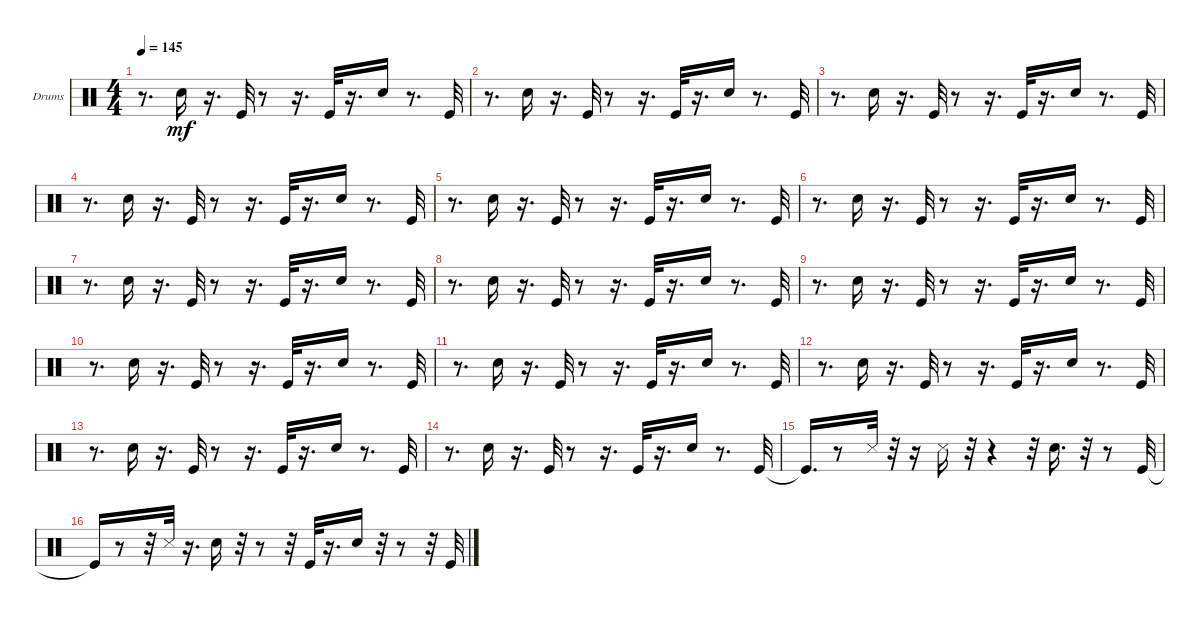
\bracketExtendMode groupsimilarinstruments
\firstSystemTrackNameOrientation horizontal
\otherSystemsTrackNameOrientation horizontal
\track ("Drums" "Drums") {instrument percussion}
\staff {score}
\articulation defaults
\ts (4 4)
\tempo 145
\clef neutral
\ks c
r.8{d dy mf} "Snare (hit) 2".16 r.16{d} "Kick (hit)".32 r.8 r.16{d} "Kick (hit)".32 r.16{d} "Snare (hit) 2".16 r.8{d} "Kick (hit)".32 |
r.8{d} "Snare (hit) 2".16 r.16{d} "Kick (hit)".32 r.8 r.16{d} "Kick (hit)".32 r.16{d} "Snare (hit) 2".16 r.8{d} "Kick (hit)".32 |
r.8{d} "Snare (hit) 2".16 r.16{d} "Kick (hit)".32 r.8 r.16{d} "Kick (hit)".32 r.16{d} "Snare (hit) 2".16 r.8{d} "Kick (hit)".32 |
r.8{d} "Snare (hit) 2".16 r.16{d} "Kick (hit)".32 r.8 r.16{d} "Kick (hit)".32 r.16{d} "Snare (hit) 2".16 r.8{d} "Kick (hit)".32 |
r.8{d} "Snare (hit) 2".16 r.16{d} "Kick (hit)".32 r.8 r.16{d} "Kick (hit)".32 r.16{d} "Snare (hit) 2".16 r.8{d} "Kick (hit)".32 |
r.8{d} "Snare (hit) 2".16 r.16{d} "Kick (hit)".32 r.8 r.16{d} "Kick (hit)".32 r.16{d} "Snare (hit) 2".16 r.8{d} "Kick (hit)".32 |
r.8{d} "Snare (hit) 2".16 r.16{d} "Kick (hit)".32 r.8 r.16{d} "Kick (hit)".32 r.16{d} "Snare (hit) 2".16 r.8{d} "Kick (hit)".32 |
r.8{d} "Snare (hit) 2".16 r.16{d} "Kick (hit)".32 r.8 r.16{d} "Kick (hit)".32 r.16{d} "Snare (hit) 2".16 r.8{d} "Kick (hit)".32 |
r.8{d} "Snare (hit) 2".16 r.16{d} "Kick (hit)".32 r.8 r.16{d} "Kick (hit)".32 r.16{d} "Snare (hit) 2".16 r.8{d} "Kick (hit)".32 |
r.8{d} "Snare (hit) 2".16 r.16{d} "Kick (hit)".32 r.8 r.16{d} "Kick (hit)".32 r.16{d} "Snare (hit) 2".16 r.8{d} "Kick (hit)".32 |
r.8{d} "Snare (hit) 2".16 r.16{d} "Kick (hit)".32 r.8 r.16{d} "Kick (hit)".32 r.16{d} "Snare (hit) 2".16 r.8{d} "Kick (hit)".32 |
r.8{d} "Snare (hit) 2".16 r.16{d} "Kick (hit)".32 r.8 r.16{d} "Kick (hit)".32 r.16{d} "Snare (hit) 2".16 r.8{d} "Kick (hit)".32 |
r.8{d} "Snare (hit) 2".16 r.16{d} "Kick (hit)".32 r.8 r.16{d} "Kick (hit)".32 r.16{d} "Snare (hit) 2".16 r.8{d} "Kick (hit)".32 |
r.8{d} "Snare (hit) 2".16 r.16{d} "Kick (hit)".32 r.8 r.16{d} "Kick (hit)".32 r.16{d} "Snare (hit) 2".16 r.8{d} "Kick (hit)".32 |
"Kick (hit)"{t}.16{d} r.8 "Snare (side stick) 3".32 r.32 r.16 "Snare (side stick) 3".16 r.32 r.4 r.32 "Snare (hit) 2".16{d} r.32 r.8 "Kick (hit)".32 |
"Kick (hit)"{t}.16 r.8 r.32 "Snare (side stick) 3".32 r.16{d} "Snare (hit) 2".16 r.32 r.8 r.32 "Kick (hit)".32 r.16{d} "Snare (hit) 2".16 r.32 r.8 r.32 "Kick (hit)".32
